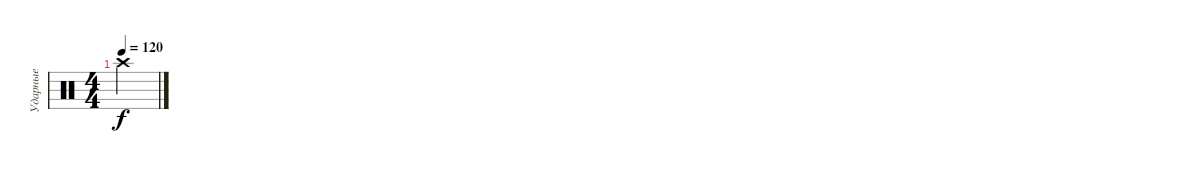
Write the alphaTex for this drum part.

\track ("Ударные" "Ударные") {instrument percussion}
\staff {score}
\articulation defaults
\ts (4 4)
\tempo 120
\clef neutral
\ks c "Crash high (hit)".4{dy f}
